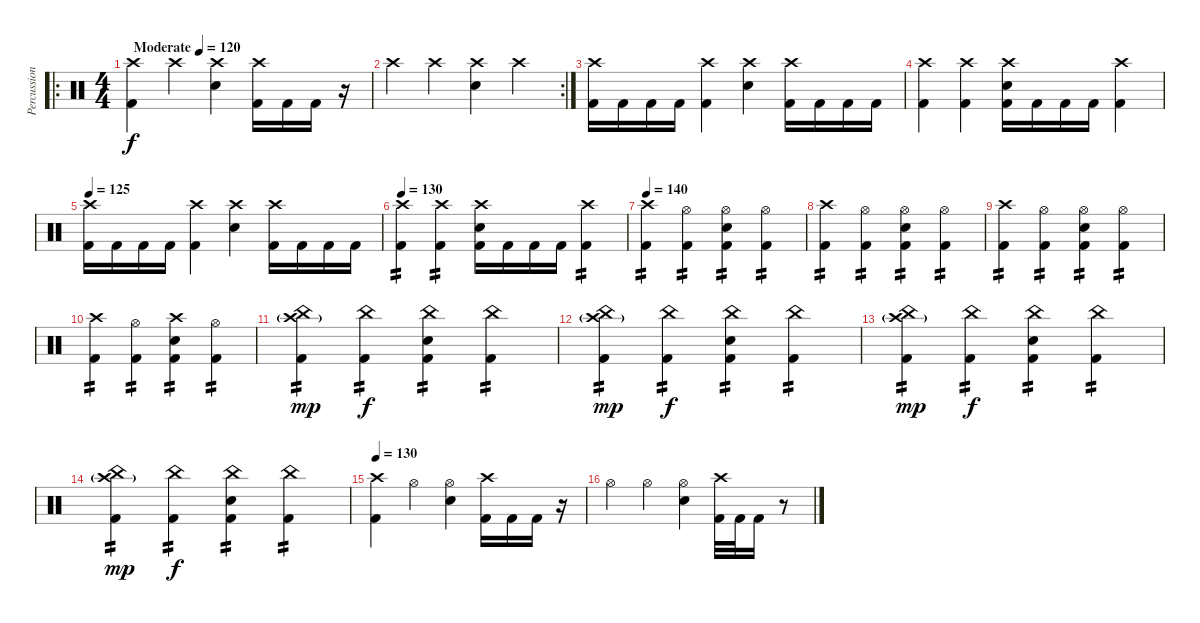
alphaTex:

\track ("Percussion" "Percussion") {instrument percussion}
\staff {score}
\articulation defaults
\ro
\ts (4 4)
\tempo (120 "Moderate")
\clef neutral
\ks c
("Crash high (hit)" "Kick (hit) 2").4{dy f} "Crash high (hit)".4 ("Crash high (hit)" "Electric Snare (hit)").4 ("Crash high (hit)" "Kick (hit) 2").16 "Kick (hit) 2".16 "Kick (hit) 2".16 r.16 |
\rc 2 "Crash high (hit)".4 "Crash high (hit)".4
("Crash high (hit)" "Electric Snare (hit)").4 "Crash high (hit)".4 |
("Crash high (hit)" "Kick (hit) 2").16 "Kick (hit) 2".16 "Kick (hit) 2".16 "Kick (hit) 2".16 ("Crash high (hit)" "Kick (hit) 2").4 ("Crash high (hit)" "Electric Snare (hit)").4 ("Crash high (hit)" "Kick (hit) 2").16 "Kick (hit) 2".16 "Kick (hit) 2".16 "Kick (hit) 2".16 |
("Crash high (hit)" "Kick (hit) 2").4 ("Crash high (hit)" "Kick (hit) 2").4 ("Crash high (hit)" "Electric Snare (hit)" "Kick (hit) 2").16 "Kick (hit) 2".16 "Kick (hit) 2".16 "Kick (hit) 2".16 ("Crash high (hit)" "Kick (hit) 2").4 |
\tempo 125
("Crash high (hit)" "Kick (hit) 2").16 "Kick (hit) 2".16 "Kick (hit) 2".16 "Kick (hit) 2".16 ("Crash high (hit)" "Kick (hit) 2").4 ("Crash high (hit)" "Electric Snare (hit)").4 ("Crash high (hit)" "Kick (hit) 2").16 "Kick (hit) 2".16 "Kick (hit) 2".16 "Kick (hit) 2".16 |
\tempo 130
("Crash high (hit)" "Kick (hit) 2").4{tp 2} ("Crash high (hit)" "Kick (hit) 2").4{tp 2} ("Crash high (hit)" "Electric Snare (hit)" "Kick (hit) 2").16 "Kick (hit) 2".16 "Kick (hit) 2".16 "Kick (hit) 2".16 ("Crash high (hit)" "Kick (hit) 2").4{tp 2} |
\tempo 140
("Crash high (hit)" "Kick (hit) 2").4{tp 2} ("Hi-Hat (open)" "Kick (hit) 2").4{tp 2} ("Hi-Hat (open)" "Electric Snare (hit)" "Kick (hit) 2").4{tp 2} ("Hi-Hat (open)" "Kick (hit) 2").4{tp 2} |
("Crash high (hit)" "Kick (hit) 2").4{tp 2} ("Hi-Hat (open)" "Kick (hit) 2").4{tp 2} ("Hi-Hat (open)" "Electric Snare (hit)" "Kick (hit) 2").4{tp 2} ("Hi-Hat (open)" "Kick (hit) 2").4{tp 2} |
("Crash high (hit)" "Kick (hit) 2").4{tp 2} ("Hi-Hat (open)" "Kick (hit) 2").4{tp 2} ("Hi-Hat (open)" "Electric Snare (hit)" "Kick (hit) 2").4{tp 2} ("Hi-Hat (open)" "Kick (hit) 2").4{tp 2} |
("Crash high (hit)" "Kick (hit) 2").4{tp 2} ("Hi-Hat (open)" "Kick (hit) 2").4{tp 2} ("Crash high (hit)" "Electric Snare (hit)" "Kick (hit) 2").4{tp 2} ("Hi-Hat (open)" "Kick (hit) 2").4{tp 2} |
("Crash high (hit)"{g} "China (hit)" "Kick (hit) 2").4{tp 2 dy mp} ("China (hit)" "Kick (hit) 2").4{tp 2 dy f} ("China (hit)" "Electric Snare (hit)" "Kick (hit) 2").4{tp 2} ("China (hit)" "Kick (hit) 2").4{tp 2} |
("Crash high (hit)"{g} "China (hit)" "Kick (hit) 2").4{tp 2 dy mp} ("China (hit)" "Kick (hit) 2").4{tp 2 dy f} ("China (hit)" "Electric Snare (hit)" "Kick (hit) 2").4{tp 2} ("China (hit)" "Kick (hit) 2").4{tp 2} |
("Crash high (hit)"{g} "China (hit)" "Kick (hit) 2").4{tp 2 dy mp} ("China (hit)" "Kick (hit) 2").4{tp 2 dy f} ("China (hit)" "Electric Snare (hit)" "Kick (hit) 2").4{tp 2} ("China (hit)" "Kick (hit) 2").4{tp 2} |
("Crash high (hit)"{g} "China (hit)" "Kick (hit) 2").4{tp 2 dy mp} ("China (hit)" "Kick (hit) 2").4{tp 2 dy f} ("China (hit)" "Electric Snare (hit)" "Kick (hit) 2").4{tp 2} ("China (hit)" "Kick (hit) 2").4{tp 2} |
\tempo 130
("Crash high (hit)" "Kick (hit) 2").4 "Hi-Hat (open)".4 ("Hi-Hat (open)" "Electric Snare (hit)").4 ("Crash high (hit)" "Kick (hit) 2").16 "Kick (hit) 2".16 "Kick (hit) 2".16 r.16 |
"Hi-Hat (open)".4 "Hi-Hat (open)".4 ("Hi-Hat (open)" "Electric Snare (hit)").4 ("Crash high (hit)" "Kick (hit) 2").32 "Kick (hit) 2".32 "Kick (hit) 2".16 r.8
